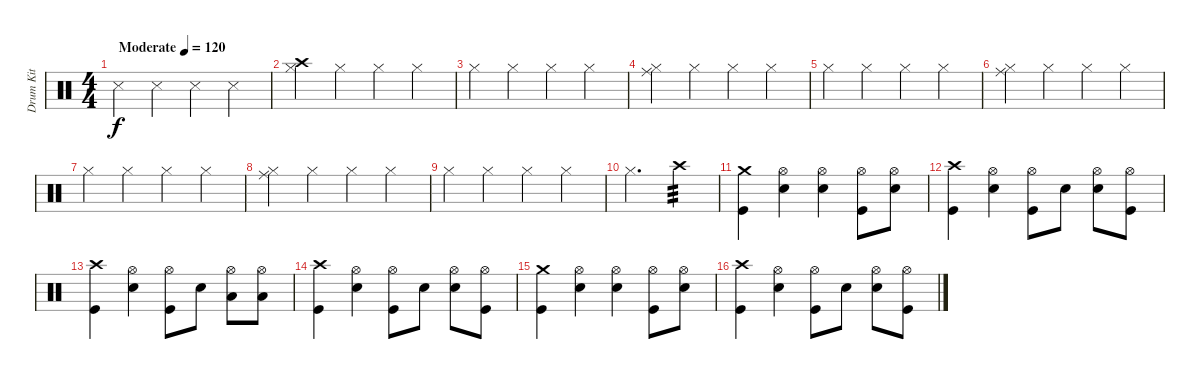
\track ("Drum Kit" "Drum Kit") {instrument percussion}
\staff {score}
\articulation defaults
\ts (4 4)
\tempo (120 "Moderate")
\clef neutral
\ks c "Snare (side stick) 3".4{dy f} "Snare (side stick) 3".4 "Snare (side stick) 3".4 "Snare (side stick) 3".4
|
("Crash high (hit)" "Hi-Hat (closed)").4 "Hi-Hat (closed)".4 "Hi-Hat (closed)".4 "Hi-Hat (closed)".4 |
"Hi-Hat (closed)".4 "Hi-Hat (closed)".4 "Hi-Hat (closed)".4 "Hi-Hat (closed)".4 |
("Ride (middle)" "Hi-Hat (closed)").4 "Hi-Hat (closed)".4 "Hi-Hat (closed)".4 "Hi-Hat (closed)".4 |
"Hi-Hat (closed)".4 "Hi-Hat (closed)".4 "Hi-Hat (closed)".4 "Hi-Hat (closed)".4 |
("Ride (middle)" "Hi-Hat (closed)").4 "Hi-Hat (closed)".4 "Hi-Hat (closed)".4 "Hi-Hat (closed)".4 |
"Hi-Hat (closed)".4 "Hi-Hat (closed)".4 "Hi-Hat (closed)".4 "Hi-Hat (closed)".4 |
("Ride (middle)" "Hi-Hat (closed)").4 "Hi-Hat (closed)".4 "Hi-Hat (closed)".4 "Hi-Hat (closed)".4 |
"Hi-Hat (closed)".4 "Hi-Hat (closed)".4 "Hi-Hat (closed)".4 "Hi-Hat (closed)".4 |
"Hi-Hat (closed)".2{d} "Crash high (hit)".4{tp 3} |
("Crash medium (hit)" "Kick (hit)").4 ("Hi-Hat (open)" "Snare (hit) 2").4 ("Hi-Hat (open)" "Snare (hit) 2").4 ("Hi-Hat (open)" "Kick (hit)").8 ("Hi-Hat (open)" "Snare (hit) 2").8 |
("Crash high (hit)" "Kick (hit)").4 ("Hi-Hat (open)" "Snare (hit) 2").4 ("Hi-Hat (open)" "Kick (hit)").8 "Snare (hit) 2".8 ("Hi-Hat (open)" "Snare (hit) 2").8 ("Hi-Hat (open)" "Kick (hit)").8 |
("Crash high (hit)" "Kick (hit)").4 ("Hi-Hat (open)" "Snare (hit) 2").4 ("Hi-Hat (open)" "Kick (hit)").8 "Snare (hit) 2".8 ("Hi-Hat (open)" "Low Tom (hit)").8 ("Hi-Hat (open)" "Low Floor Tom (hit)").8 |
("Crash high (hit)" "Kick (hit)").4 ("Hi-Hat (open)" "Snare (hit) 2").4 ("Hi-Hat (open)" "Kick (hit)").8 "Snare (hit) 2".8 ("Hi-Hat (open)" "Snare (hit) 2").8 ("Hi-Hat (open)" "Kick (hit)").8 |
("Crash medium (hit)" "Kick (hit)").4 ("Hi-Hat (open)" "Snare (hit) 2").4 ("Hi-Hat (open)" "Snare (hit) 2").4 ("Hi-Hat (open)" "Kick (hit)").8 ("Hi-Hat (open)" "Snare (hit) 2").8 |
("Crash high (hit)" "Kick (hit)").4 ("Hi-Hat (open)" "Snare (hit) 2").4 ("Hi-Hat (open)" "Kick (hit)").8 "Snare (hit) 2".8 ("Hi-Hat (open)" "Snare (hit) 2").8 ("Hi-Hat (open)" "Kick (hit)").8
